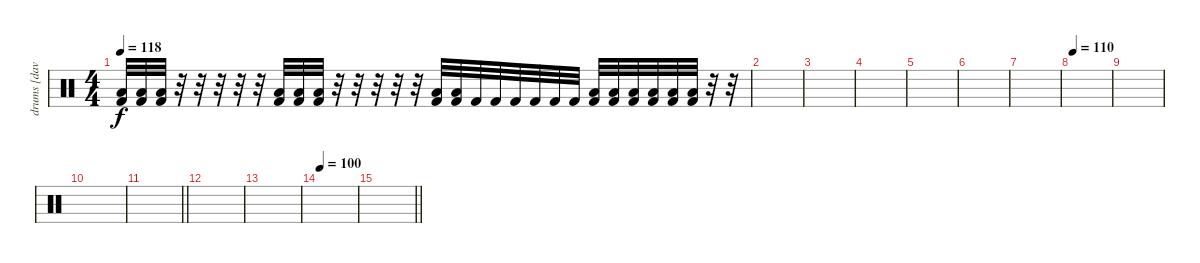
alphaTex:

\track ("drums [david]" "drums [dav") {instrument percussion}
\staff {score}
\articulation defaults
\ts (4 4)
\tempo 118
\clef neutral
\ks c
("Low Tom (hit)" "Kick (hit) 2").32{dy f} ("Low Tom (hit)" "Kick (hit) 2").32 ("Low Tom (hit)" "Kick (hit) 2").32 r.32 r.32 r.32 r.32 r.32 ("Low Tom (hit)" "Kick (hit) 2").32 ("Low Tom (hit)" "Kick (hit) 2").32 ("Low Tom (hit)" "Kick (hit) 2").32 r.32 r.32 r.32 r.32 r.32 ("Low Tom (hit)" "Kick (hit) 2").32 ("Low Tom (hit)" "Kick (hit) 2").32 "Kick (hit) 2".32 "Kick (hit) 2".32 "Kick (hit) 2".32 "Kick (hit) 2".32 "Kick (hit) 2".32 "Kick (hit) 2".32 ("Low Tom (hit)" "Kick (hit) 2").32 ("Low Tom (hit)" "Kick (hit) 2").32 ("Low Tom (hit)" "Kick (hit) 2").32 ("Low Tom (hit)" "Kick (hit) 2").32 ("Low Tom (hit)" "Kick (hit) 2").32 ("Low Tom (hit)" "Kick (hit) 2").32 r.32 r.32 |
|
|
|
|
|
|
\tempo 110
|
|
|
\barLineRight lightlight
|
|
|
\tempo 100
|
\barLineRight lightlight
